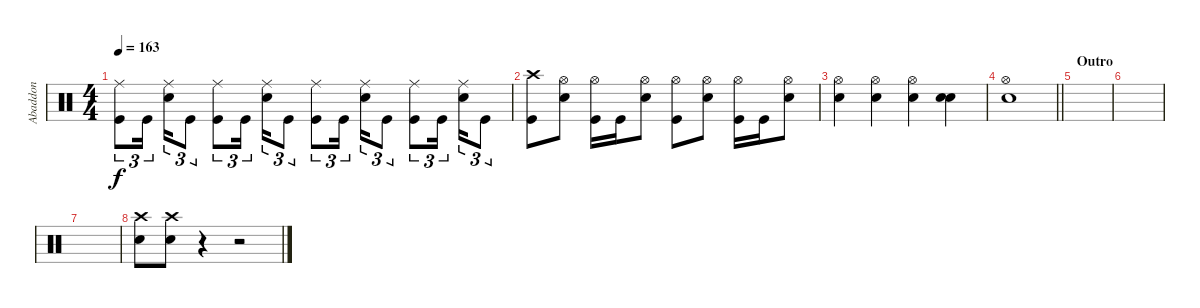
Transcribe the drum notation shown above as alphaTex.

\track ("Abaddon" "Abaddon") {instrument percussion}
\staff {score}
\articulation defaults
\ts (4 4)
\tempo 163
\clef neutral
\ks c
("Ride (middle)" "Kick (hit)").8{tu (3 2) dy f} "Kick (hit)".16{tu (3 2) beam splitsecondary} ("Ride (middle)" "Electric Snare (hit)").16{tu (3 2)} "Kick (hit)".8{tu (3 2)} ("Ride (middle)" "Kick (hit)").8{tu (3 2)} "Kick (hit)".16{tu (3 2) beam splitsecondary} ("Ride (middle)" "Electric Snare (hit)").16{tu (3 2)} "Kick (hit)".8{tu (3 2)} ("Ride (middle)" "Kick (hit)").8{tu (3 2)} "Kick (hit)".16{tu (3 2) beam splitsecondary} ("Ride (middle)" "Electric Snare (hit)").16{tu (3 2)} "Kick (hit)".8{tu (3 2)} ("Ride (middle)" "Kick (hit)").8{tu (3 2)} "Kick (hit)".16{tu (3 2) beam splitsecondary} ("Ride (middle)" "Electric Snare (hit)").16{tu (3 2)} "Kick (hit)".8{tu (3 2)} |
("Crash high (hit)" "Kick (hit)").8 ("Hi-Hat (open)" "Electric Snare (hit)").8 ("Hi-Hat (open)" "Kick (hit)").16 "Kick (hit)".16 ("Hi-Hat (open)" "Electric Snare (hit)").8 ("Hi-Hat (open)" "Kick (hit)").8 ("Hi-Hat (open)" "Electric Snare (hit)").8 ("Hi-Hat (open)" "Kick (hit)").16 "Kick (hit)".16 ("Hi-Hat (open)" "Electric Snare (hit)").8 |
("Hi-Hat (open)" "Electric Snare (hit)").4 ("Hi-Hat (open)" "Electric Snare (hit)").4 ("Hi-Hat (open)" "Electric Snare (hit)").4 ("Electric Snare (hit)" "Electric Snare (hit)").4 |
\barLineRight lightlight
("Hi-Hat (open)" "Electric Snare (hit)").1 |
\section ("" "Outro")
|
|
|
("Crash high (hit)" "Electric Snare (hit)").8 ("Crash high (hit)" "Electric Snare (hit)").8 r.4 r.2
